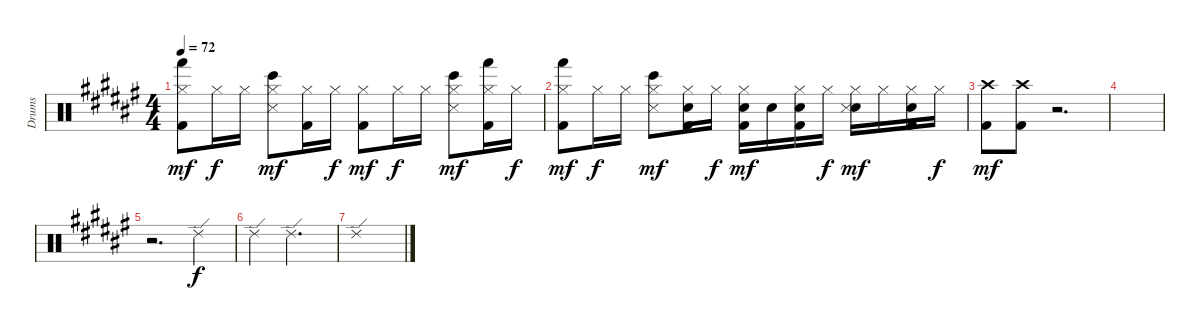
\track ("Drums" "Drums") {instrument percussion}
\staff {score}
\articulation defaults
\ts (4 4)
\tempo 72
\clef neutral
\ks f#
("Hand (hit)" "Hi-Hat (closed)" "Kick (hit) 2").8{dy mf} "Hi-Hat (closed)".16{dy f} "Hi-Hat (closed)".16 ("Bongo High (hit)" "Hi-Hat (closed)" "Snare (side stick) 3").8{dy mf} ("Hi-Hat (closed)" "Kick (hit) 2").16 "Hi-Hat (closed)".16{dy f} ("Hi-Hat (closed)" "Kick (hit) 2").8{dy mf} "Hi-Hat (closed)".16{dy f} "Hi-Hat (closed)".16 ("Bongo High (hit)" "Hi-Hat (closed)" "Snare (side stick) 3").8{dy mf} ("Hand (hit)" "Hi-Hat (closed)" "Kick (hit) 2").16 "Hi-Hat (closed)".16{dy f} |
("Hand (hit)" "Hi-Hat (closed)" "Kick (hit) 2").8{dy mf} "Hi-Hat (closed)".16{dy f} "Hi-Hat (closed)".16 ("Bongo High (hit)" "Hi-Hat (closed)" "Snare (side stick) 3").8{dy mf} ("Hi-Hat (closed)" "Snare (hit) 2" "Kick (hit) 2").16 "Hi-Hat (closed)".16{dy f} ("Hi-Hat (closed)" "Snare (hit) 2" "Kick (hit) 2").16{dy mf} "Snare (hit) 2".16 ("Hi-Hat (closed)" "Snare (hit) 2" "Kick (hit) 2").16 "Hi-Hat (closed)".16{dy f} ("Hi-Hat (closed)" "Snare (hit) 2" "Snare (side stick) 3").16{dy mf} "Hi-Hat (closed)".16 ("Hi-Hat (closed)" "Snare (hit) 2" "Kick (hit) 2").16 "Hi-Hat (closed)".16{dy f} |
("Crash high (hit)" "Kick (hit) 2").8{dy mf} ("Crash high (hit)" "Kick (hit) 2").8 r.2{d} |
|
r.2{d} "Ride (edge) 2".4{dy f} |
"Ride (edge) 2".4 "Ride (edge) 2".2{d} |
"Ride (edge) 2".1
